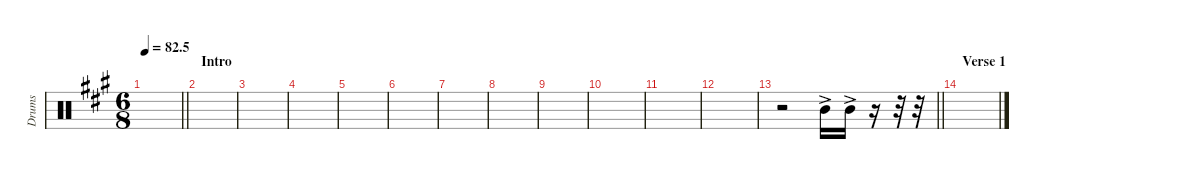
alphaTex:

\defaultSystemsLayout 4
\hideDynamics
\bracketExtendMode nobrackets
\otherSystemsTrackNameOrientation horizontal
\track ("Tom 02" "Drums") {instrument percussion}
\staff {score}
\articulation defaults
\ts (6 8)
\tempo
82.5
\accidentals auto
\clef neutral
\ottava regular
\simile none
\scale
0.474178
\barLineRight lightlight
\ks a
|
\section ("" "Intro")
\scale
0.262911 |
\scale
0.262911 |
\scale
0.333333 |
\scale
0.333333 |
\scale
0.333333 |
\scale
0.333333 |
\scale
0.333333 |
\scale
0.333333 |
\scale
0.333333 |
\scale
0.333333 |
\scale
0.333333 |
\scale
0.333333
\barLineRight lightlight
r.2 "Mid Tom (hit)"{ac acc forcenatural}.16 "Mid Tom (hit)"{ac acc forcenatural}.16 r.16 r.32 r.32 |
\section ("" "Verse 1")
\scale
0.333333 |
\scale
0.333333 |
\scale
0.333333
